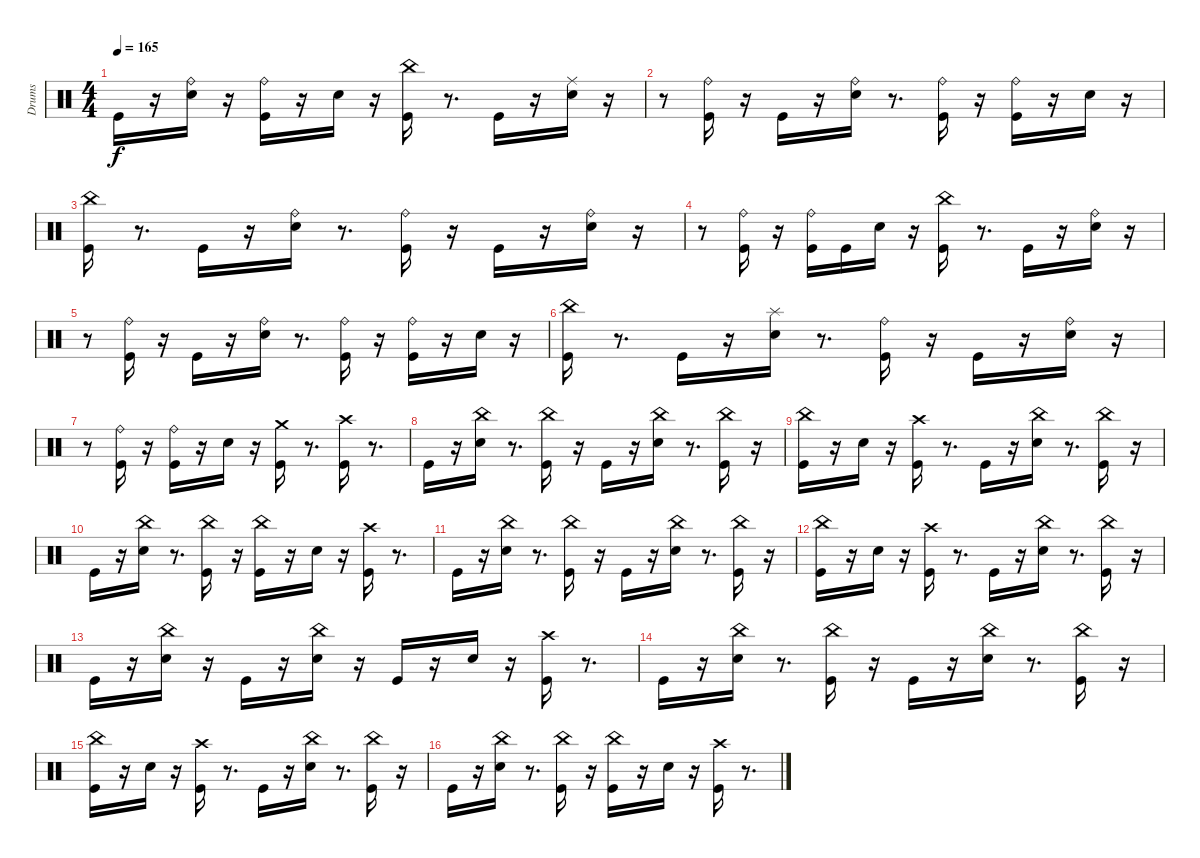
\track ("Drums" "Drums") {instrument percussion}
\staff {score}
\articulation defaults
\ts (4 4)
\tempo 165
\clef neutral
\ks c "Kick (hit)".16{dy f}
r.16 ("Ride (bell)" "Electric Snare (hit)").16 r.16 ("Ride (bell)" "Kick (hit)").16 r.16 "Electric Snare (hit)".16 r.16 ("China (hit)" "Kick (hit)").16 r.8{d} "Kick (hit)".16 r.16 ("Electric Snare (hit)" "Ride (middle)").16 r.16 |
r.8 ("Ride (bell)" "Kick (hit)").16 r.16 "Kick (hit)".16 r.16 ("Ride (bell)" "Electric Snare (hit)").16 r.8{d} ("Ride (bell)" "Kick (hit)").16 r.16 ("Ride (bell)" "Kick (hit)").16 r.16 "Electric Snare (hit)".16 r.16 |
("China (hit)" "Kick (hit)").16 r.8{d} "Kick (hit)".16 r.16 ("Electric Snare (hit)" "Ride (bell)").16 r.8{d} ("Ride (bell)" "Kick (hit)").16 r.16 "Kick (hit)".16 r.16 ("Ride (bell)" "Electric Snare (hit)").16 r.16 |
r.8 ("Ride (bell)" "Kick (hit)").16 r.16 ("Ride (bell)" "Kick (hit)").16 "Kick (hit)".16 "Electric Snare (hit)".16 r.16 ("China (hit)" "Kick (hit)").16 r.8{d} "Kick (hit)".16 r.16 ("Electric Snare (hit)" "Ride (bell)").16 r.16 |
r.8 ("Ride (bell)" "Kick (hit)").16 r.16 "Kick (hit)".16 r.16 ("Ride (bell)" "Electric Snare (hit)").16 r.8{d} ("Ride (bell)" "Kick (hit)").16 r.16 ("Ride (bell)" "Kick (hit)").16 r.16 "Electric Snare (hit)".16 r.16 |
("China (hit)" "Kick (hit)").16 r.8{d} "Kick (hit)".16 r.16 ("Electric Snare (hit)" "Splash (hit)").16 r.8{d} ("Ride (bell)" "Kick (hit)").16 r.16 "Kick (hit)".16 r.16 ("Ride (bell)" "Electric Snare (hit)").16 r.16 |
r.8 ("Ride (bell)" "Kick (hit)").16 r.16 ("Ride (bell)" "Kick (hit)").16 r.16 "Electric Snare (hit)".16 r.16 ("Crash medium (hit)" "Kick (hit)").16 r.8{d} ("Kick (hit)" "Crash high (hit)").16 r.8{d} |
"Kick (hit)".16 r.16 ("Electric Snare (hit)" "China (hit)").16 r.8{d} ("Kick (hit)" "China (hit)").16 r.16 "Kick (hit)".16 r.16 ("Electric Snare (hit)" "China (hit)").16 r.8{d} ("Kick (hit)" "China (hit)").16 r.16 |
("Kick (hit)" "China (hit)").16 r.16 "Electric Snare (hit)".16 r.16 ("Kick (hit)" "Crash high (hit)").16 r.8{d} "Kick (hit)".16 r.16 ("Electric Snare (hit)" "China (hit)").16 r.8{d} ("Kick (hit)" "China (hit)").16 r.16 |
"Kick (hit)".16 r.16 ("Electric Snare (hit)" "China (hit)").16 r.8{d} ("Kick (hit)" "China (hit)").16 r.16 ("Kick (hit)" "China (hit)").16 r.16 "Electric Snare (hit)".16 r.16 ("Kick (hit)" "Crash high (hit)").16 r.8{d} |
"Kick (hit)".16 r.16 ("Electric Snare (hit)" "China (hit)").16 r.8{d} ("Kick (hit)" "China (hit)").16 r.16 "Kick (hit)".16 r.16 ("Electric Snare (hit)" "China (hit)").16 r.8{d} ("Kick (hit)" "China (hit)").16 r.16 |
("Kick (hit)" "China (hit)").16 r.16 "Electric Snare (hit)".16 r.16 ("Kick (hit)" "Crash high (hit)").16 r.8{d} "Kick (hit)".16 r.16 ("Electric Snare (hit)" "China (hit)").16 r.8{d} ("Kick (hit)" "China (hit)").16 r.16 |
"Kick (hit)".16 r.16 ("Electric Snare (hit)" "China (hit)").16 r.16 "Kick (hit)".16 r.16 ("Electric Snare (hit)" "China (hit)").16 r.16 "Kick (hit)".16 r.16 "Electric Snare (hit)".16 r.16 ("Kick (hit)" "Crash high (hit)").16 r.8{d} |
"Kick (hit)".16 r.16 ("Electric Snare (hit)" "China (hit)").16 r.8{d} ("Kick (hit)" "China (hit)").16 r.16 "Kick (hit)".16 r.16 ("Electric Snare (hit)" "China (hit)").16 r.8{d} ("Kick (hit)" "China (hit)").16 r.16 |
("Kick (hit)" "China (hit)").16 r.16 "Electric Snare (hit)".16 r.16 ("Kick (hit)" "Crash high (hit)").16 r.8{d} "Kick (hit)".16 r.16 ("Electric Snare (hit)" "China (hit)").16 r.8{d} ("Kick (hit)" "China (hit)").16 r.16 |
"Kick (hit)".16 r.16 ("Electric Snare (hit)" "China (hit)").16 r.8{d} ("Kick (hit)" "China (hit)").16 r.16 ("Kick (hit)" "China (hit)").16 r.16 "Electric Snare (hit)".16 r.16 ("Kick (hit)" "Crash high (hit)").16 r.8{d}
